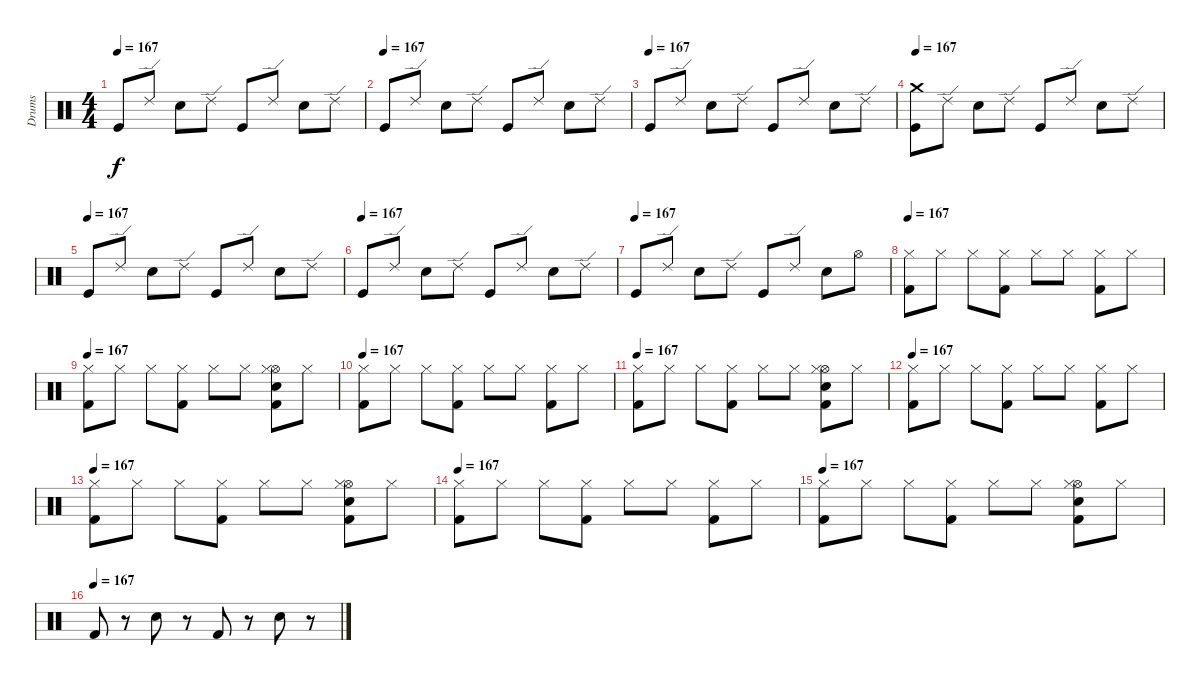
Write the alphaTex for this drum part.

\track ("Drums" "Drums") {instrument percussion}
\staff {score}
\articulation defaults
\ts (4 4)
\tempo 167
\clef neutral
\ks c "Kick (hit)".8{dy f} "Ride (edge) 2".8 "Electric Snare (hit)".8 "Ride (edge) 2".8 "Kick (hit)".8 "Ride (edge) 2".8 "Electric Snare (hit)".8 "Ride (edge) 2".8
|
\tempo (167)
"Kick (hit)".8 "Ride (edge) 2".8 "Electric Snare (hit)".8 "Ride (edge) 2".8 "Kick (hit)".8 "Ride (edge) 2".8 "Electric Snare (hit)".8 "Ride (edge) 2".8 |
\tempo (167)
"Kick (hit)".8 "Ride (edge) 2".8 "Electric Snare (hit)".8 "Ride (edge) 2".8 "Kick (hit)".8 "Ride (edge) 2".8 "Electric Snare (hit)".8 "Ride (edge) 2".8 |
\tempo 167
("Kick (hit)" "Crash medium (hit)").8 "Ride (edge) 2".8 "Electric Snare (hit)".8 "Ride (edge) 2".8 "Kick (hit)".8 "Ride (edge) 2".8 "Electric Snare (hit)".8 "Ride (edge) 2".8 |
\tempo (167)
"Kick (hit)".8 "Ride (edge) 2".8 "Electric Snare (hit)".8 "Ride (edge) 2".8 "Kick (hit)".8 "Ride (edge) 2".8 "Electric Snare (hit)".8 "Ride (edge) 2".8 |
\tempo (167)
"Kick (hit)".8 "Ride (edge) 2".8 "Electric Snare (hit)".8 "Ride (edge) 2".8 "Kick (hit)".8 "Ride (edge) 2".8 "Electric Snare (hit)".8 "Ride (edge) 2".8 |
\tempo (167)
"Kick (hit)".8 "Ride (edge) 2".8 "Electric Snare (hit)".8 "Ride (edge) 2".8 "Kick (hit)".8 "Ride (edge) 2".8 "Electric Snare (hit)".8 "Hi-Hat (open)".8 |
\tempo 167
("Kick (hit) 2" "Hi-Hat (closed)").8 "Hi-Hat (closed)".8 "Hi-Hat (closed)".8 ("Hi-Hat (closed)" "Kick (hit) 2").8 "Hi-Hat (closed)".8 "Hi-Hat (closed)".8 ("Hi-Hat (closed)" "Kick (hit) 2").8 "Hi-Hat (closed)".8 |
\tempo 167
("Kick (hit) 2" "Hi-Hat (closed)").8 "Hi-Hat (closed)".8 "Hi-Hat (closed)".8 ("Hi-Hat (closed)" "Kick (hit) 2").8 "Hi-Hat (closed)".8 "Hi-Hat (closed)".8 ("Hi-Hat (open)" "Electric Snare (hit)" "Hi-Hat (closed)" "Kick (hit) 2").8 "Hi-Hat (closed)".8 |
\tempo 167
("Kick (hit) 2" "Hi-Hat (closed)").8 "Hi-Hat (closed)".8 "Hi-Hat (closed)".8 ("Hi-Hat (closed)" "Kick (hit) 2").8 "Hi-Hat (closed)".8 "Hi-Hat (closed)".8 ("Hi-Hat (closed)" "Kick (hit) 2").8 "Hi-Hat (closed)".8 |
\tempo 167
("Kick (hit) 2" "Hi-Hat (closed)").8 "Hi-Hat (closed)".8 "Hi-Hat (closed)".8 ("Hi-Hat (closed)" "Kick (hit) 2").8 "Hi-Hat (closed)".8 "Hi-Hat (closed)".8 ("Hi-Hat (open)" "Electric Snare (hit)" "Hi-Hat (closed)" "Kick (hit) 2").8 "Hi-Hat (closed)".8 |
\tempo 167
("Kick (hit) 2" "Hi-Hat (closed)").8 "Hi-Hat (closed)".8 "Hi-Hat (closed)".8 ("Hi-Hat (closed)" "Kick (hit) 2").8 "Hi-Hat (closed)".8 "Hi-Hat (closed)".8 ("Hi-Hat (closed)" "Kick (hit) 2").8 "Hi-Hat (closed)".8 |
\tempo 167
("Kick (hit) 2" "Hi-Hat (closed)").8 "Hi-Hat (closed)".8 "Hi-Hat (closed)".8 ("Hi-Hat (closed)" "Kick (hit) 2").8 "Hi-Hat (closed)".8 "Hi-Hat (closed)".8 ("Hi-Hat (open)" "Electric Snare (hit)" "Hi-Hat (closed)" "Kick (hit) 2").8 "Hi-Hat (closed)".8 |
\tempo 167
("Kick (hit) 2" "Hi-Hat (closed)").8 "Hi-Hat (closed)".8 "Hi-Hat (closed)".8 ("Hi-Hat (closed)" "Kick (hit) 2").8 "Hi-Hat (closed)".8 "Hi-Hat (closed)".8 ("Hi-Hat (closed)" "Kick (hit) 2").8 "Hi-Hat (closed)".8 |
\tempo 167
("Kick (hit) 2" "Hi-Hat (closed)").8 "Hi-Hat (closed)".8 "Hi-Hat (closed)".8 ("Hi-Hat (closed)" "Kick (hit) 2").8 "Hi-Hat (closed)".8 "Hi-Hat (closed)".8 ("Hi-Hat (open)" "Electric Snare (hit)" "Hi-Hat (closed)" "Kick (hit) 2").8 "Hi-Hat (closed)".8 |
\tempo (167)
"Kick (hit) 2".8 r.8 "Electric Snare (hit)".8 r.8 "Kick (hit) 2".8 r.8 "Electric Snare (hit)".8 r.8
